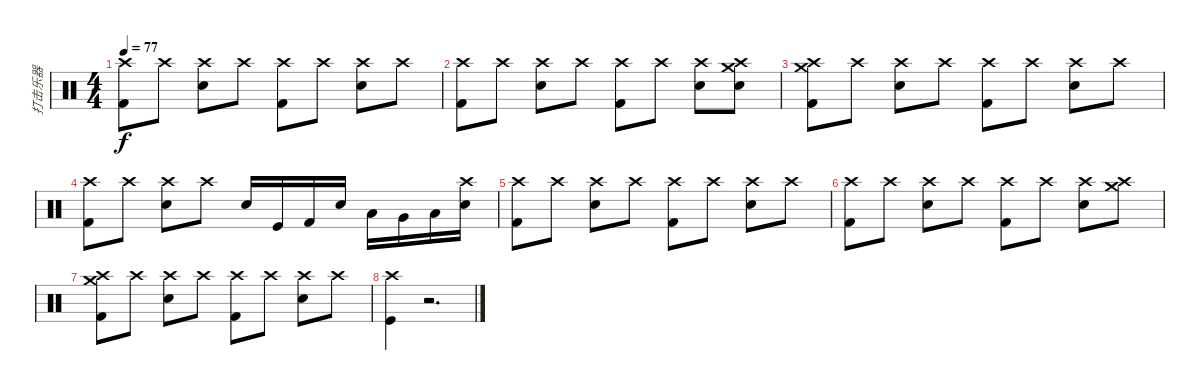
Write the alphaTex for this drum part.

\track ("打击乐器" "打击乐器") {instrument percussion}
\staff {score}
\articulation defaults
\ts (4 4)
\tempo 77
\clef neutral
\ks c
("Crash high (hit)" "Kick (hit) 2").8{dy f} "Crash high (hit)".8 ("Crash high (hit)" "Snare (hit) 2").8 "Crash high (hit)".8 ("Crash high (hit)" "Kick (hit) 2").8 "Crash high (hit)".8 ("Crash high (hit)" "Snare (hit) 2").8 "Crash high (hit)".8 |
("Crash high (hit)" "Kick (hit) 2").8 "Crash high (hit)".8 ("Crash high (hit)" "Snare (hit) 2").8 "Crash high (hit)".8 ("Crash high (hit)" "Kick (hit) 2").8 "Crash high (hit)".8 ("Crash high (hit)" "Snare (hit) 2").8 ("Crash high (hit)" "Crash medium (hit)" "Snare (hit) 2").8 |
("Crash high (hit)" "Crash medium (hit)" "Kick (hit) 2").8 "Crash high (hit)".8 ("Crash high (hit)" "Snare (hit) 2").8 "Crash high (hit)".8 ("Crash high (hit)" "Kick (hit) 2").8 "Crash high (hit)".8 ("Crash high (hit)" "Snare (hit) 2").8 "Crash high (hit)".8 |
("Crash high (hit)" "Kick (hit) 2").8 "Crash high (hit)".8 ("Crash high (hit)" "Snare (hit) 2").8 "Crash high (hit)".8 "Snare (hit) 2".16 "Kick (hit)".16 "Kick (hit) 2".16 "Snare (hit) 2".16 "Low Floor Tom (hit)".16 "Very Low Tom (hit)".16 "Low Tom (hit)".16 ("Crash high (hit)" "Snare (hit) 2").16 |
("Crash high (hit)" "Kick (hit) 2").8 "Crash high (hit)".8 ("Crash high (hit)" "Snare (hit) 2").8 "Crash high (hit)".8 ("Crash high (hit)" "Kick (hit) 2").8 "Crash high (hit)".8 ("Crash high (hit)" "Snare (hit) 2").8 "Crash high (hit)".8 |
("Crash high (hit)" "Kick (hit) 2").8 "Crash high (hit)".8 ("Crash high (hit)" "Snare (hit) 2").8 "Crash high (hit)".8 ("Crash high (hit)" "Kick (hit) 2").8 "Crash high (hit)".8 ("Crash high (hit)" "Snare (hit) 2").8 ("Crash high (hit)" "Crash medium (hit)").8 |
("Crash high (hit)" "Crash medium (hit)" "Kick (hit) 2").8 "Crash high (hit)".8 ("Crash high (hit)" "Snare (hit) 2").8 "Crash high (hit)".8 ("Crash high (hit)" "Kick (hit) 2").8 "Crash high (hit)".8 ("Crash high (hit)" "Snare (hit) 2").8 "Crash high (hit)".8 |
("Crash high (hit)" "Kick (hit)").4 r.2{d}
